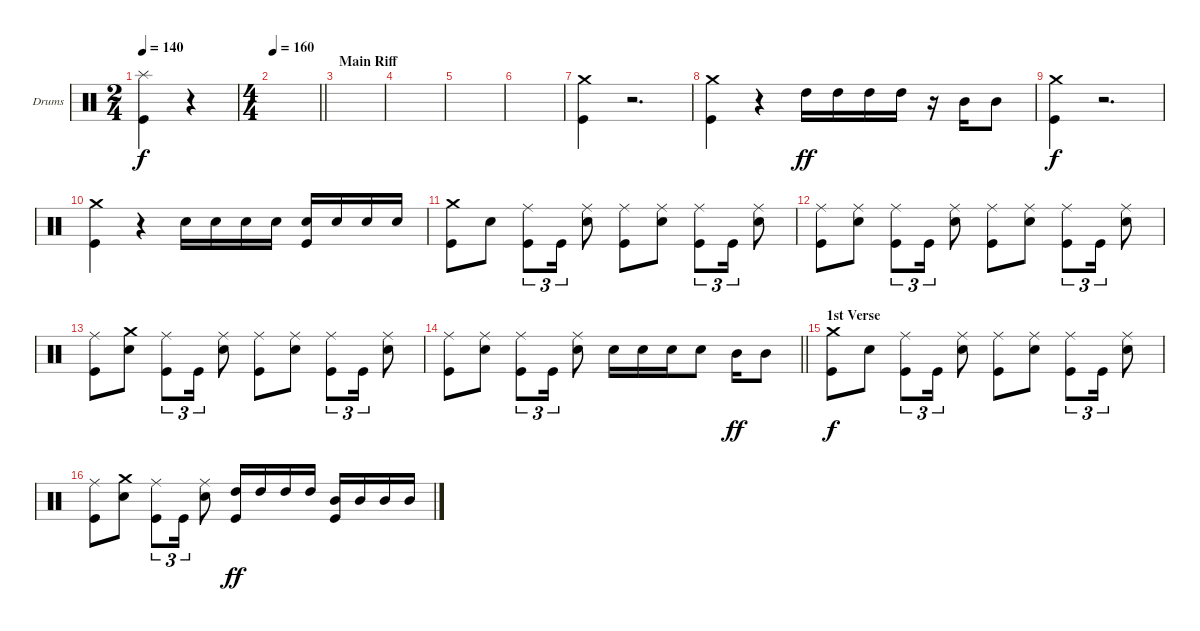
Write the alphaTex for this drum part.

\bracketExtendMode groupsimilarinstruments
\firstSystemTrackNameOrientation horizontal
\otherSystemsTrackNameOrientation horizontal
\track ("Drums" "Drums") {instrument percussion}
\staff {score}
\articulation defaults
\ts (2 4)
\tempo 140
\clef neutral
\ks c
("Kick (hit)" "Splash (hit)").4{dy f} r.4 |
\ts (4 4)
\tempo 160
\barLineRight lightlight
|
\section ("" "Main Riff")
|
|
|
|
("Crash medium (hit)" "Kick (hit)").4 r.2{d} |
("Crash medium (hit)" "Kick (hit)").4 r.4 "High Tom (hit)".16{dy ff} "High Tom (hit)".16 "High Tom (hit)".16 "High Tom (hit)".16 r.16 "Mid Tom (hit)".16 "Mid Tom (hit)".8 |
("Kick (hit)" "Crash medium (hit)").4{dy f} r.2{d} |
("Kick (hit)" "Crash medium (hit)").4 r.4 "Snare (hit) 2".16 "Snare (hit) 2".16 "Snare (hit) 2".16 "Snare (hit) 2".16 ("Snare (hit) 2" "Kick (hit)").16 "Snare (hit) 2".16 "Snare (hit) 2".16 "Snare (hit) 2".16 |
("Kick (hit)" "Crash medium (hit)").8 "Snare (hit) 2".8 ("Kick (hit)" "Ride (middle)").8{tu (3 2)} "Kick (hit)".16{tu (3 2)} ("Ride (middle)" "Snare (hit) 2").8 ("Ride (middle)" "Kick (hit)").8 ("Ride (middle)" "Snare (hit) 2").8 ("Ride (middle)" "Kick (hit)").8{tu (3 2)} "Kick (hit)".16{tu (3 2)} ("Ride (middle)" "Snare (hit) 2").8 |
("Ride (middle)" "Kick (hit)").8 ("Ride (middle)" "Snare (hit) 2").8 ("Kick (hit)" "Ride (middle)").8{tu (3 2)} "Kick (hit)".16{tu (3 2)} ("Ride (middle)" "Snare (hit) 2").8 ("Ride (middle)" "Kick (hit)").8 ("Ride (middle)" "Snare (hit) 2").8 ("Kick (hit)" "Ride (middle)").8{tu (3 2)} "Kick (hit)".16{tu (3 2)} ("Ride (middle)" "Snare (hit) 2").8 |
("Ride (middle)" "Kick (hit)").8 ("Crash medium (hit)" "Snare (hit) 2").8 ("Kick (hit)" "Ride (middle)").8{tu (3 2)} "Kick (hit)".16{tu (3 2)} ("Ride (middle)" "Snare (hit) 2").8 ("Ride (middle)" "Kick (hit)").8 ("Ride (middle)" "Snare (hit) 2").8 ("Kick (hit)" "Ride (middle)").8{tu (3 2)} "Kick (hit)".16{tu (3 2)} ("Ride (middle)" "Snare (hit) 2").8 |
\barLineRight lightlight
("Ride (middle)" "Kick (hit)").8 ("Ride (middle)" "Snare (hit) 2").8 ("Kick (hit)" "Ride (middle)").8{tu (3 2)} "Kick (hit)".16{tu (3 2)} ("Ride (middle)" "Snare (hit) 2").8 "Snare (hit) 2".16 "Snare (hit) 2".16 "Snare (hit) 2".16 "Snare (hit) 2".8 "Mid Tom (hit)".16{dy ff} "Mid Tom (hit)".8 |
\section ("" "1st Verse")
("Crash medium (hit)" "Kick (hit)").8{dy f} "Snare (hit) 2".8 ("Kick (hit)" "Ride (middle)").8{tu (3 2)} "Kick (hit)".16{tu (3 2)} ("Ride (middle)" "Snare (hit) 2").8 ("Ride (middle)" "Kick (hit)").8 ("Ride (middle)" "Snare (hit) 2").8 ("Kick (hit)" "Ride (middle)").8{tu (3 2)} "Kick (hit)".16{tu (3 2)} ("Ride (middle)" "Snare (hit) 2").8 |
("Ride (middle)" "Kick (hit)").8 ("Crash medium (hit)" "Snare (hit) 2").8 ("Kick (hit)" "Ride (middle)").8{tu (3 2)} "Kick (hit)".16{tu (3 2)} ("Ride (middle)" "Snare (hit) 2").8 ("Kick (hit)" "High Tom (hit)").16{dy ff} "High Tom (hit)".16 "High Tom (hit)".16 "High Tom (hit)".16 ("Kick (hit)" "Mid Tom (hit)").16 "Mid Tom (hit)".16 "Mid Tom (hit)".16 "Mid Tom (hit)".16
